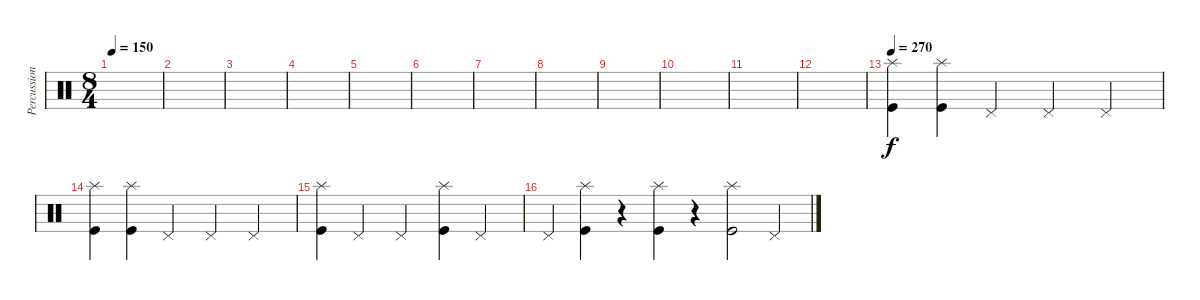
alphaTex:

\track ("Percussion" "Percussion") {instrument percussion}
\staff {score}
\articulation defaults
\ts (8 4)
\tempo 150
\clef neutral
\ks c
|
|
|
|
|
|
|
|
|
|
|
|
\tempo 270
("Kick (hit)" "Splash (hit)").4 ("Kick (hit)" "Splash (hit)").4 "Pedal Hi-Hat (hit)".2 "Pedal Hi-Hat (hit)".2 "Pedal Hi-Hat (hit)".2 |
("Kick (hit)" "Splash (hit)").4 ("Kick (hit)" "Splash (hit)").4 "Pedal Hi-Hat (hit)".2 "Pedal Hi-Hat (hit)".2 "Pedal Hi-Hat (hit)".2 |
("Kick (hit)" "Splash (hit)").4 "Pedal Hi-Hat (hit)".2 "Pedal Hi-Hat (hit)".2 ("Kick (hit)" "Splash (hit)").4 "Pedal Hi-Hat (hit)".2 |
"Pedal Hi-Hat (hit)".4 ("Kick (hit)" "Splash (hit)").4 r.4 ("Kick (hit)" "Splash (hit)").4 r.4 ("Kick (hit)" "Splash (hit)").2 "Pedal Hi-Hat (hit)".4
